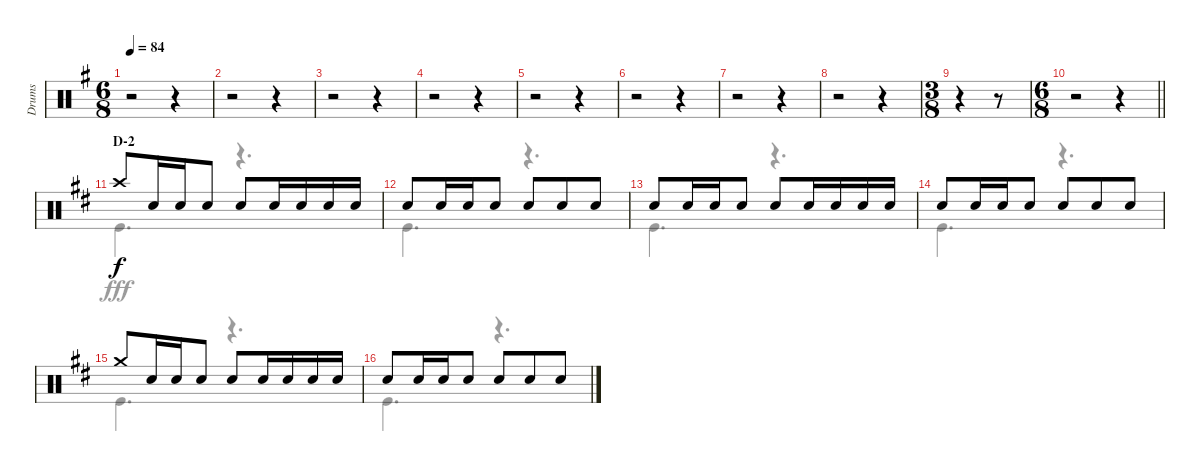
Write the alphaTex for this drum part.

\track ("Drums" "Drums") {instrument percussion}
\staff {score}
\articulation defaults
\voice
\ts (6 8)
\tempo 84
\clef neutral
\ks g
r.2{dy f} r.4 |
r.2 r.4 |
r.2 r.4 |
r.2 r.4 |
r.2 r.4 |
r.2 r.4 |
r.2 r.4 |
r.2 r.4 |
\ts (3 8)
r.4 r.8 |
\ts (6 8)
\barLineRight lightlight
r.2 r.4 |
\section ("" "D-2")
\ks d "Crash high (hit)".8 "Snare (hit) 2".16 "Snare (hit) 2".16 "Snare (hit) 2".8 "Snare (hit) 2".8 "Snare (hit) 2".16 "Snare (hit) 2".16 "Snare (hit) 2".16 "Snare (hit) 2".16
|
"Snare (hit) 2".8 "Snare (hit) 2".16 "Snare (hit) 2".16 "Snare (hit) 2".8 "Snare (hit) 2".8 "Snare (hit) 2".8 "Snare (hit) 2".8 |
"Snare (hit) 2".8 "Snare (hit) 2".16 "Snare (hit) 2".16 "Snare (hit) 2".8 "Snare (hit) 2".8 "Snare (hit) 2".16 "Snare (hit) 2".16 "Snare (hit) 2".16 "Snare (hit) 2".16 |
"Snare (hit) 2".8 "Snare (hit) 2".16 "Snare (hit) 2".16 "Snare (hit) 2".8 "Snare (hit) 2".8 "Snare (hit) 2".8 "Snare (hit) 2".8 |
"Crash medium (hit)".8 "Snare (hit) 2".16 "Snare (hit) 2".16 "Snare (hit) 2".8 "Snare (hit) 2".8 "Snare (hit) 2".16 "Snare (hit) 2".16 "Snare (hit) 2".16 "Snare (hit) 2".16 |
"Snare (hit) 2".8 "Snare (hit) 2".16 "Snare (hit) 2".16 "Snare (hit) 2".8 "Snare (hit) 2".8 "Snare (hit) 2".8 "Snare (hit) 2".8
\voice
\clef neutral
\ottava regular
\simile none
\ks g
r.2{dy fff} r.4 |
r.2 r.4 |
r.2 r.4 |
r.2 r.4 |
r.2 r.4 |
r.2 r.4 |
r.2 r.4 |
r.2 r.4 |
r.4 r.8 |
\barLineRight lightlight
r.2 r.4 |
\ks d "Kick (hit)".4{d}
r.4{d} |
"Kick (hit)".4{d} r.4{d} |
"Kick (hit)".4{d} r.4{d} |
"Kick (hit)".4{d} r.4{d} |
"Kick (hit)".4{d} r.4{d} |
"Kick (hit)".4{d} r.4{d}
